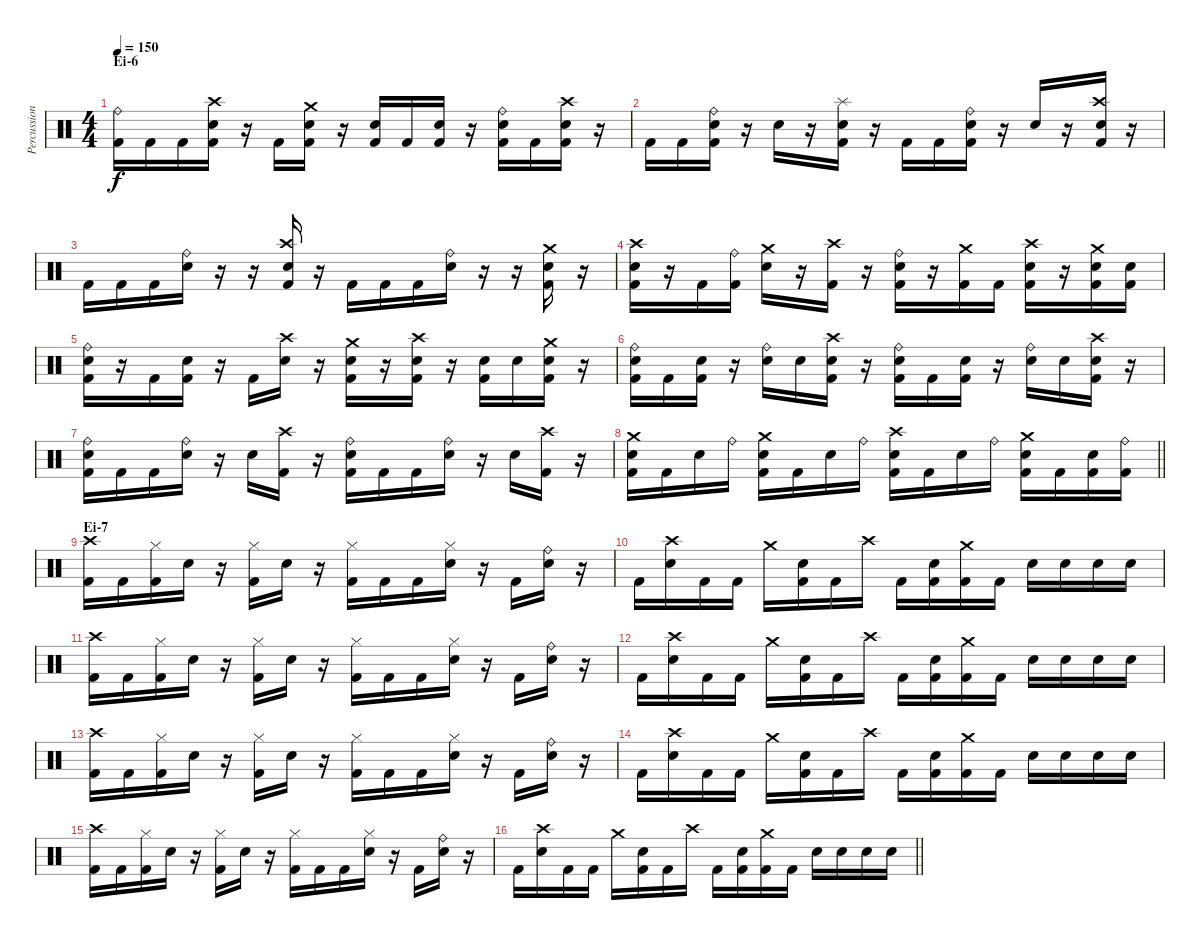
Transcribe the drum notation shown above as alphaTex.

\track ("Percussion" "Percussion") {instrument percussion}
\staff {score}
\articulation defaults
\ts (4 4)
\section ("" "Ei-6")
\tempo 150
\clef neutral
\ks c
("Ride (bell)" "Kick (hit) 2").16{dy f} "Kick (hit) 2".16 "Kick (hit) 2".16 ("Crash high (hit)" "Electric Snare (hit)" "Kick (hit) 2").16 r.16 "Kick (hit) 2".16 ("Crash medium (hit)" "Electric Snare (hit)" "Kick (hit) 2").16 r.16 ("Electric Snare (hit)" "Kick (hit) 2").16 "Kick (hit) 2".16 ("Electric Snare (hit)" "Kick (hit) 2").16 r.16 ("Ride (bell)" "Electric Snare (hit)" "Kick (hit) 2").16 "Kick (hit) 2".16 ("Crash high (hit)" "Electric Snare (hit)" "Kick (hit) 2").16 r.16 |
"Kick (hit) 2".16 "Kick (hit) 2".16 ("Ride (bell)" "Electric Snare (hit)" "Kick (hit) 2").16 r.16 "Electric Snare (hit)".16 r.16 ("Splash (hit)" "Electric Snare (hit)" "Kick (hit) 2").16 r.16 "Kick (hit) 2".16 "Kick (hit) 2".16 ("Ride (bell)" "Electric Snare (hit)" "Kick (hit) 2").16 r.16 "Electric Snare (hit)".16 r.16 ("Crash high (hit)" "Electric Snare (hit)" "Kick (hit) 2").16 r.16 |
"Kick (hit) 2".16 "Kick (hit) 2".16 "Kick (hit) 2".16 ("Ride (bell)" "Electric Snare (hit)").16 r.16 r.16 ("Crash high (hit)" "Electric Snare (hit)" "Kick (hit) 2").16 r.16 "Kick (hit) 2".16 "Kick (hit) 2".16 "Kick (hit) 2".16 ("Ride (bell)" "Electric Snare (hit)").16 r.16 r.16 ("Crash medium (hit)" "Electric Snare (hit)" "Kick (hit) 2").16 r.16 |
("Crash high (hit)" "Electric Snare (hit)" "Kick (hit) 2").16 r.16 "Kick (hit) 2".16 ("Ride (bell)" "Kick (hit) 2").16 ("Crash medium (hit)" "Electric Snare (hit)").16 r.16 ("Crash high (hit)" "Kick (hit) 2").16 r.16 ("Ride (bell)" "Electric Snare (hit)" "Kick (hit) 2").16 r.16 ("Crash medium (hit)" "Kick (hit) 2").16 "Kick (hit) 2".16 ("Crash high (hit)" "Electric Snare (hit)" "Kick (hit) 2").16 r.16 ("Crash medium (hit)" "Electric Snare (hit)" "Kick (hit) 2").16 ("Electric Snare (hit)" "Kick (hit) 2").16 |
("Ride (bell)" "Electric Snare (hit)" "Kick (hit) 2").16 r.16 "Kick (hit) 2".16 ("Electric Snare (hit)" "Kick (hit) 2").16 r.16 "Kick (hit) 2".16 ("Crash high (hit)" "Electric Snare (hit)").16 r.16 ("Crash medium (hit)" "Electric Snare (hit)" "Kick (hit) 2").16 r.16 ("Crash high (hit)" "Electric Snare (hit)" "Kick (hit) 2").16 r.16 ("Electric Snare (hit)" "Kick (hit) 2").16 "Electric Snare (hit)".16 ("Crash medium (hit)" "Electric Snare (hit)" "Kick (hit) 2").16 r.16 |
("Ride (bell)" "Electric Snare (hit)" "Kick (hit) 2").16 "Kick (hit) 2".16 ("Electric Snare (hit)" "Kick (hit) 2").16 r.16 ("Ride (bell)" "Electric Snare (hit)").16 "Electric Snare (hit)".16 ("Crash high (hit)" "Electric Snare (hit)" "Kick (hit) 2").16 r.16 ("Ride (bell)" "Electric Snare (hit)" "Kick (hit) 2").16 "Kick (hit) 2".16 ("Electric Snare (hit)" "Kick (hit) 2").16 r.16 ("Ride (bell)" "Electric Snare (hit)").16 "Electric Snare (hit)".16 ("Crash high (hit)" "Electric Snare (hit)" "Kick (hit) 2").16 r.16 |
("Ride (bell)" "Electric Snare (hit)" "Kick (hit) 2").16 "Kick (hit) 2".16 "Kick (hit) 2".16 ("Ride (bell)" "Electric Snare (hit)").16 r.16 "Electric Snare (hit)".16 ("Crash high (hit)" "Kick (hit) 2").16 r.16 ("Ride (bell)" "Electric Snare (hit)" "Kick (hit) 2").16 "Kick (hit) 2".16 "Kick (hit) 2".16 ("Ride (bell)" "Electric Snare (hit)").16 r.16 "Electric Snare (hit)".16 ("Crash high (hit)" "Kick (hit) 2").16 r.16 |
\barLineRight lightlight
("Crash medium (hit)" "Electric Snare (hit)" "Kick (hit) 2").16 "Kick (hit) 2".16 "Electric Snare (hit)".16 "Ride (bell)".16 ("Crash medium (hit)" "Electric Snare (hit)" "Kick (hit) 2").16 "Kick (hit) 2".16 "Electric Snare (hit)".16 "Ride (bell)".16 ("Crash high (hit)" "Electric Snare (hit)" "Kick (hit) 2").16 "Kick (hit) 2".16 "Electric Snare (hit)".16 "Ride (bell)".16 ("Crash medium (hit)" "Electric Snare (hit)" "Kick (hit) 2").16 "Kick (hit) 2".16 ("Electric Snare (hit)" "Kick (hit) 2").16 ("Ride (bell)" "Kick (hit) 2").16 |
\section ("" "Ei-7")
("Crash high (hit)" "Kick (hit) 2").16 "Kick (hit) 2".16 ("Hi-Hat (closed)" "Kick (hit) 2").16 "Electric Snare (hit)".16 r.16 ("Hi-Hat (closed)" "Kick (hit) 2").16 "Electric Snare (hit)".16 r.16 ("Hi-Hat (closed)" "Kick (hit) 2").16 "Kick (hit) 2".16 "Kick (hit) 2".16 ("Hi-Hat (closed)" "Electric Snare (hit)").16 r.16 "Kick (hit) 2".16 ("Ride (bell)" "Electric Snare (hit)").16 r.16 |
"Kick (hit) 2".16 ("Crash high (hit)" "Electric Snare (hit)").16 "Kick (hit) 2".16 "Kick (hit) 2".16 "Crash medium (hit)".16 ("Electric Snare (hit)" "Kick (hit) 2").16 "Kick (hit) 2".16 "Crash high (hit)".16 "Kick (hit) 2".16 ("Electric Snare (hit)" "Kick (hit) 2").16 ("Crash medium (hit)" "Kick (hit) 2").16 "Kick (hit) 2".16 "Electric Snare (hit)".16 "Electric Snare (hit)".16 "Electric Snare (hit)".16 "Electric Snare (hit)".16 |
("Crash high (hit)" "Kick (hit) 2").16 "Kick (hit) 2".16 ("Hi-Hat (closed)" "Kick (hit) 2").16 "Electric Snare (hit)".16 r.16 ("Hi-Hat (closed)" "Kick (hit) 2").16 "Electric Snare (hit)".16 r.16 ("Hi-Hat (closed)" "Kick (hit) 2").16 "Kick (hit) 2".16 "Kick (hit) 2".16 ("Hi-Hat (closed)" "Electric Snare (hit)").16 r.16 "Kick (hit) 2".16 ("Ride (bell)" "Electric Snare (hit)").16 r.16 |
"Kick (hit) 2".16 ("Crash high (hit)" "Electric Snare (hit)").16 "Kick (hit) 2".16 "Kick (hit) 2".16 "Crash medium (hit)".16 ("Electric Snare (hit)" "Kick (hit) 2").16 "Kick (hit) 2".16 "Crash high (hit)".16 "Kick (hit) 2".16 ("Electric Snare (hit)" "Kick (hit) 2").16 ("Crash medium (hit)" "Kick (hit) 2").16 "Kick (hit) 2".16 "Electric Snare (hit)".16 "Electric Snare (hit)".16 "Electric Snare (hit)".16 "Electric Snare (hit)".16 |
("Crash high (hit)" "Kick (hit) 2").16 "Kick (hit) 2".16 ("Hi-Hat (closed)" "Kick (hit) 2").16 "Electric Snare (hit)".16 r.16 ("Hi-Hat (closed)" "Kick (hit) 2").16 "Electric Snare (hit)".16 r.16 ("Hi-Hat (closed)" "Kick (hit) 2").16 "Kick (hit) 2".16 "Kick (hit) 2".16 ("Hi-Hat (closed)" "Electric Snare (hit)").16 r.16 "Kick (hit) 2".16 ("Ride (bell)" "Electric Snare (hit)").16 r.16 |
"Kick (hit) 2".16 ("Crash high (hit)" "Electric Snare (hit)").16 "Kick (hit) 2".16 "Kick (hit) 2".16 "Crash medium (hit)".16 ("Electric Snare (hit)" "Kick (hit) 2").16 "Kick (hit) 2".16 "Crash high (hit)".16 "Kick (hit) 2".16 ("Electric Snare (hit)" "Kick (hit) 2").16 ("Crash medium (hit)" "Kick (hit) 2").16 "Kick (hit) 2".16 "Electric Snare (hit)".16 "Electric Snare (hit)".16 "Electric Snare (hit)".16 "Electric Snare (hit)".16 |
("Crash high (hit)" "Kick (hit) 2").16 "Kick (hit) 2".16 ("Hi-Hat (closed)" "Kick (hit) 2").16 "Electric Snare (hit)".16 r.16 ("Hi-Hat (closed)" "Kick (hit) 2").16 "Electric Snare (hit)".16 r.16 ("Hi-Hat (closed)" "Kick (hit) 2").16 "Kick (hit) 2".16 "Kick (hit) 2".16 ("Hi-Hat (closed)" "Electric Snare (hit)").16 r.16 "Kick (hit) 2".16 ("Ride (bell)" "Electric Snare (hit)").16 r.16 |
\barLineRight lightlight "Kick (hit) 2".16
("Crash high (hit)" "Electric Snare (hit)").16 "Kick (hit) 2".16 "Kick (hit) 2".16 "Crash medium (hit)".16 ("Electric Snare (hit)" "Kick (hit) 2").16 "Kick (hit) 2".16 "Crash high (hit)".16 "Kick (hit) 2".16 ("Electric Snare (hit)" "Kick (hit) 2").16 ("Crash medium (hit)" "Kick (hit) 2").16 "Kick (hit) 2".16 "Electric Snare (hit)".16 "Electric Snare (hit)".16 "Electric Snare (hit)".16 "Electric Snare (hit)".16
